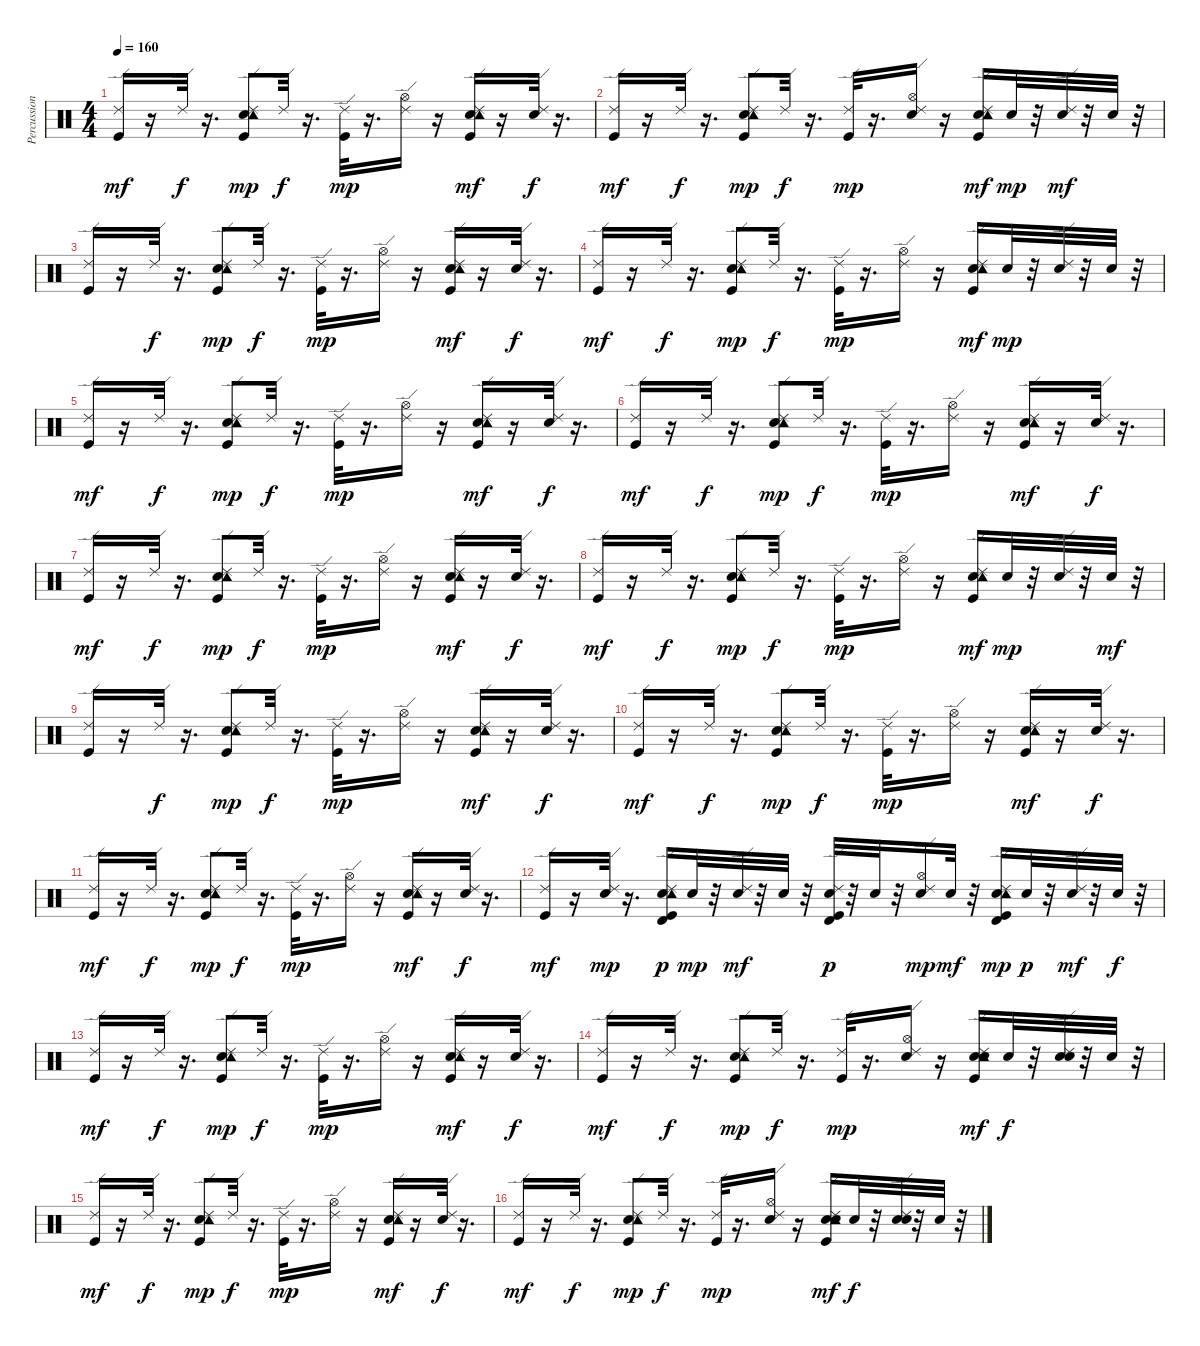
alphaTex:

\track ("Percussion" "Percussion") {instrument percussion}
\staff {score}
\articulation defaults
\ts (4 4)
\tempo 160
\clef neutral
\ks c
("Kick (hit)" "Ride (edge) 2").16{dy mf} r.16 "Ride (edge) 2".32{dy f} r.16{d} ("Kick (hit)" "Electric Snare (hit)" "Tambourine (hit)" "Ride (edge) 2").8{dy mp} "Ride (edge) 2".32{dy f} r.16{d} ("Kick (hit)" "Ride (edge) 2").32{dy mp} r.16{d} ("Hi-Hat (open)" "Ride (edge) 2").16 r.16 ("Kick (hit)" "Electric Snare (hit)" "Tambourine (hit)" "Ride (edge) 2").16{dy mf} r.16 ("Electric Snare (hit)" "Ride (edge) 2").32{dy f} r.16{d} |
("Kick (hit)" "Ride (edge) 2").16{dy mf} r.16 "Ride (edge) 2".32{dy f} r.16{d} ("Kick (hit)" "Electric Snare (hit)" "Tambourine (hit)" "Ride (edge) 2").8{dy mp} "Ride (edge) 2".32{dy f} r.16{d} ("Kick (hit)" "Ride (edge) 2").32{dy mp} r.16{d} ("Snare (hit) 2" "Hi-Hat (open)" "Ride (edge) 2").16 r.16 ("Kick (hit)" "Snare (hit) 2" "Tambourine (hit)" "Ride (edge) 2").16{dy mf} "Snare (hit) 2".32{dy mp} r.32 ("Snare (hit) 2" "Ride (edge) 2").32{dy mf} r.32 "Snare (hit) 2".32 r.32 |
("Kick (hit)" "Ride (edge) 2").16 r.16 "Ride (edge) 2".32{dy f} r.16{d} ("Kick (hit)" "Electric Snare (hit)" "Tambourine (hit)" "Ride (edge) 2").8{dy mp} "Ride (edge) 2".32{dy f} r.16{d} ("Kick (hit)" "Ride (edge) 2").32{dy mp} r.16{d} ("Hi-Hat (open)" "Ride (edge) 2").16 r.16 ("Kick (hit)" "Electric Snare (hit)" "Tambourine (hit)" "Ride (edge) 2").16{dy mf} r.16 ("Electric Snare (hit)" "Ride (edge) 2").32{dy f} r.16{d} |
("Kick (hit)" "Ride (edge) 2").16{dy mf} r.16 "Ride (edge) 2".32{dy f} r.16{d} ("Kick (hit)" "Electric Snare (hit)" "Tambourine (hit)" "Ride (edge) 2").8{dy mp} "Ride (edge) 2".32{dy f} r.16{d} ("Kick (hit)" "Ride (edge) 2").32{dy mp} r.16{d} ("Hi-Hat (open)" "Ride (edge) 2").16 r.16 ("Kick (hit)" "Snare (hit) 2" "Tambourine (hit)" "Ride (edge) 2").16{dy mf} "Snare (hit) 2".32{dy mp} r.32 ("Snare (hit) 2" "Ride (edge) 2").32 r.32 "Snare (hit) 2".32 r.32 |
("Kick (hit)" "Ride (edge) 2").16{dy mf} r.16 "Ride (edge) 2".32{dy f} r.16{d} ("Kick (hit)" "Electric Snare (hit)" "Tambourine (hit)" "Ride (edge) 2").8{dy mp} "Ride (edge) 2".32{dy f} r.16{d} ("Kick (hit)" "Ride (edge) 2").32{dy mp} r.16{d} ("Hi-Hat (open)" "Ride (edge) 2").16 r.16 ("Kick (hit)" "Electric Snare (hit)" "Tambourine (hit)" "Ride (edge) 2").16{dy mf} r.16 ("Electric Snare (hit)" "Ride (edge) 2").32{dy f} r.16{d} |
("Kick (hit)" "Ride (edge) 2").16{dy mf} r.16 "Ride (edge) 2".32{dy f} r.16{d} ("Kick (hit)" "Electric Snare (hit)" "Tambourine (hit)" "Ride (edge) 2").8{dy mp} "Ride (edge) 2".32{dy f} r.16{d} ("Kick (hit)" "Ride (edge) 2").32{dy mp} r.16{d} ("Hi-Hat (open)" "Ride (edge) 2").16 r.16 ("Kick (hit)" "Electric Snare (hit)" "Tambourine (hit)" "Ride (edge) 2").16{dy mf} r.16 ("Electric Snare (hit)" "Ride (edge) 2").32{dy f} r.16{d} |
("Kick (hit)" "Ride (edge) 2").16{dy mf} r.16 "Ride (edge) 2".32{dy f} r.16{d} ("Kick (hit)" "Electric Snare (hit)" "Tambourine (hit)" "Ride (edge) 2").8{dy mp} "Ride (edge) 2".32{dy f} r.16{d} ("Kick (hit)" "Ride (edge) 2").32{dy mp} r.16{d} ("Hi-Hat (open)" "Ride (edge) 2").16 r.16 ("Kick (hit)" "Electric Snare (hit)" "Tambourine (hit)" "Ride (edge) 2").16{dy mf} r.16 ("Electric Snare (hit)" "Ride (edge) 2").32{dy f} r.16{d} |
("Kick (hit)" "Ride (edge) 2").16{dy mf} r.16 "Ride (edge) 2".32{dy f} r.16{d} ("Kick (hit)" "Electric Snare (hit)" "Tambourine (hit)" "Ride (edge) 2").8{dy mp} "Ride (edge) 2".32{dy f} r.16{d} ("Kick (hit)" "Ride (edge) 2").32{dy mp} r.16{d} ("Hi-Hat (open)" "Ride (edge) 2").16 r.16 ("Kick (hit)" "Snare (hit) 2" "Tambourine (hit)" "Ride (edge) 2").16{dy mf} "Snare (hit) 2".32{dy mp} r.32 ("Snare (hit) 2" "Ride (edge) 2").32 r.32 "Snare (hit) 2".32{dy mf} r.32 |
("Kick (hit)" "Ride (edge) 2").16 r.16 "Ride (edge) 2".32{dy f} r.16{d} ("Kick (hit)" "Electric Snare (hit)" "Tambourine (hit)" "Ride (edge) 2").8{dy mp} "Ride (edge) 2".32{dy f} r.16{d} ("Kick (hit)" "Ride (edge) 2").32{dy mp} r.16{d} ("Hi-Hat (open)" "Ride (edge) 2").16 r.16 ("Kick (hit)" "Electric Snare (hit)" "Tambourine (hit)" "Ride (edge) 2").16{dy mf} r.16 ("Electric Snare (hit)" "Ride (edge) 2").32{dy f} r.16{d} |
("Kick (hit)" "Ride (edge) 2").16{dy mf} r.16 "Ride (edge) 2".32{dy f} r.16{d} ("Kick (hit)" "Electric Snare (hit)" "Tambourine (hit)" "Ride (edge) 2").8{dy mp} "Ride (edge) 2".32{dy f} r.16{d} ("Kick (hit)" "Ride (edge) 2").32{dy mp} r.16{d} ("Hi-Hat (open)" "Ride (edge) 2").16 r.16 ("Kick (hit)" "Electric Snare (hit)" "Tambourine (hit)" "Ride (edge) 2").16{dy mf} r.16 ("Electric Snare (hit)" "Ride (edge) 2").32{dy f} r.16{d} |
("Kick (hit)" "Ride (edge) 2").16{dy mf} r.16 "Ride (edge) 2".32{dy f} r.16{d} ("Kick (hit)" "Electric Snare (hit)" "Tambourine (hit)" "Ride (edge) 2").8{dy mp} "Ride (edge) 2".32{dy f} r.16{d} ("Kick (hit)" "Ride (edge) 2").32{dy mp} r.16{d} ("Hi-Hat (open)" "Ride (edge) 2").16 r.16 ("Kick (hit)" "Electric Snare (hit)" "Tambourine (hit)" "Ride (edge) 2").16{dy mf} r.16 ("Electric Snare (hit)" "Ride (edge) 2").32{dy f} r.16{d} |
("Kick (hit)" "Ride (edge) 2").16{dy mf} r.16 ("Snare (hit) 2" "Ride (edge) 2").32{dy mp} r.16{d} ("Kick (hit)" "Snare (hit) 2" "Tambourine (hit)" "Ride (edge) 2" "Timbale high (hit)").16{dy p} "Snare (hit) 2".32{dy mp} r.32 ("Snare (hit) 2" "Ride (edge) 2").32{dy mf} r.32 "Snare (hit) 2".32 r.32 ("Kick (hit)" "Snare (hit) 2" "Ride (edge) 2" "Timbale high (hit)").32{dy p} r.32 "Snare (hit) 2".32 r.32 ("Snare (hit) 2" "Hi-Hat (open)" "Ride (edge) 2").16{dy mp} "Snare (hit) 2".32{dy mf} r.32 ("Kick (hit)" "Snare (hit) 2" "Tambourine (hit)" "Ride (edge) 2" "Timbale high (hit)").16{dy mp} "Snare (hit) 2".32{dy p} r.32 ("Snare (hit) 2" "Ride (edge) 2").32{dy mf} r.32 "Snare (hit) 2".32{dy f} r.32 |
("Kick (hit)" "Ride (edge) 2").16{dy mf} r.16 "Ride (edge) 2".32{dy f} r.16{d} ("Kick (hit)" "Electric Snare (hit)" "Tambourine (hit)" "Ride (edge) 2").8{dy mp} "Ride (edge) 2".32{dy f} r.16{d} ("Kick (hit)" "Ride (edge) 2").32{dy mp} r.16{d} ("Hi-Hat (open)" "Ride (edge) 2").16 r.16 ("Kick (hit)" "Electric Snare (hit)" "Tambourine (hit)" "Ride (edge) 2").16{dy mf} r.16 ("Electric Snare (hit)" "Ride (edge) 2").32{dy f} r.16{d} |
("Kick (hit)" "Ride (edge) 2").16{dy mf} r.16 "Ride (edge) 2".32{dy f} r.16{d} ("Kick (hit)" "Electric Snare (hit)" "Tambourine (hit)" "Ride (edge) 2").8{dy mp} "Ride (edge) 2".32{dy f} r.16{d} ("Kick (hit)" "Ride (edge) 2").32{dy mp} r.16{d} ("Snare (hit) 2" "Hi-Hat (open)" "Ride (edge) 2").16 r.16 ("Kick (hit)" "Snare (hit) 2" "Electric Snare (hit)" "Tambourine (hit)" "Ride (edge) 2").16{dy mf} "Snare (hit) 2".32{dy f} r.32 ("Snare (hit) 2" "Electric Snare (hit)" "Ride (edge) 2").32 r.32 "Snare (hit) 2".32 r.32 |
("Kick (hit)" "Ride (edge) 2").16{dy mf} r.16 "Ride (edge) 2".32{dy f} r.16{d} ("Kick (hit)" "Electric Snare (hit)" "Tambourine (hit)" "Ride (edge) 2").8{dy mp} "Ride (edge) 2".32{dy f} r.16{d} ("Kick (hit)" "Ride (edge) 2").32{dy mp} r.16{d} ("Hi-Hat (open)" "Ride (edge) 2").16 r.16 ("Kick (hit)" "Electric Snare (hit)" "Tambourine (hit)" "Ride (edge) 2").16{dy mf} r.16 ("Electric Snare (hit)" "Ride (edge) 2").32{dy f} r.16{d} |
("Kick (hit)" "Ride (edge) 2").16{dy mf} r.16 "Ride (edge) 2".32{dy f} r.16{d} ("Kick (hit)" "Electric Snare (hit)" "Tambourine (hit)" "Ride (edge) 2").8{dy mp} "Ride (edge) 2".32{dy f} r.16{d} ("Kick (hit)" "Ride (edge) 2").32{dy mp} r.16{d} ("Snare (hit) 2" "Hi-Hat (open)" "Ride (edge) 2").16 r.16 ("Kick (hit)" "Snare (hit) 2" "Electric Snare (hit)" "Tambourine (hit)" "Ride (edge) 2").16{dy mf} "Snare (hit) 2".32{dy f} r.32 ("Snare (hit) 2" "Electric Snare (hit)" "Ride (edge) 2").32 r.32 "Snare (hit) 2".32 r.32
